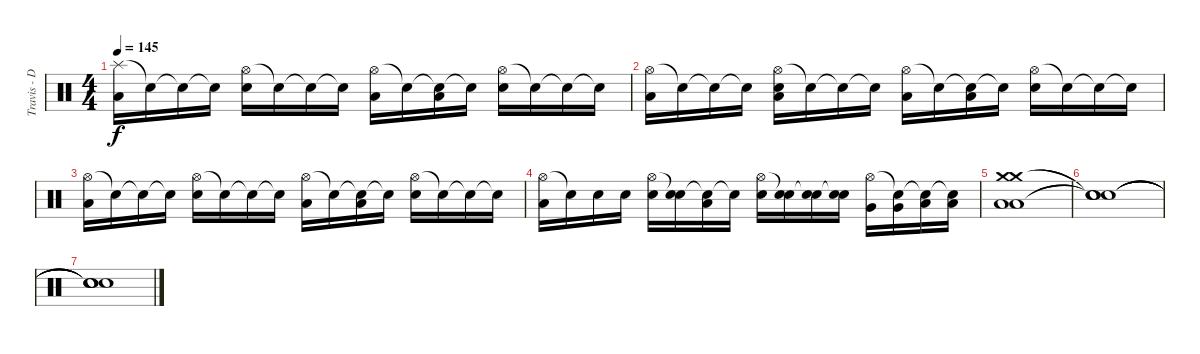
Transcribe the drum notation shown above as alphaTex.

\track ("Travis - Drums" "Travis - D") {instrument percussion}
\staff {score}
\articulation defaults
\ts (4 4)
\tempo 145
\clef neutral
\ks c
("Splash (hit)" "Low Floor Tom (hit)").16{dy f} "Snare (hit)"{t}.16 "Snare (hit)"{t}.16 "Snare (hit)"{t}.16 ("Hi-Hat (open)" "Electric Snare (hit)").16 "Snare (hit)"{t}.16 "Snare (hit)"{t}.16 "Snare (hit)"{t}.16 ("Hi-Hat (open)" "Low Floor Tom (hit)").16 "Snare (hit)"{t}.16 ("Snare (hit)"{t} "Low Floor Tom (hit)").16 "Snare (hit)"{t}.16 ("Hi-Hat (open)" "Electric Snare (hit)").16 "Snare (hit)"{t}.16 "Snare (hit)"{t}.16 "Snare (hit)"{t}.16 |
("Hi-Hat (open)" "Low Floor Tom (hit)").16 "Snare (hit)"{t}.16 "Snare (hit)"{t}.16 "Snare (hit)"{t}.16 ("Hi-Hat (open)" "Electric Snare (hit)" "Low Floor Tom (hit)").16 "Snare (hit)"{t}.16 "Snare (hit)"{t}.16 "Snare (hit)"{t}.16 ("Hi-Hat (open)" "Low Floor Tom (hit)").16 "Snare (hit)"{t}.16 ("Snare (hit)"{t} "Low Floor Tom (hit)").16 "Snare (hit)"{t}.16 ("Hi-Hat (open)" "Electric Snare (hit)").16 "Snare (hit)"{t}.16 "Snare (hit)"{t}.16 "Snare (hit)"{t}.16 |
("Hi-Hat (open)" "Low Floor Tom (hit)").16 "Snare (hit)"{t}.16 "Snare (hit)"{t}.16 "Snare (hit)"{t}.16 ("Hi-Hat (open)" "Electric Snare (hit)").16 "Snare (hit)"{t}.16 "Snare (hit)"{t}.16 "Snare (hit)"{t}.16 ("Hi-Hat (open)" "Low Floor Tom (hit)").16 "Snare (hit)"{t}.16 ("Snare (hit)"{t} "Low Floor Tom (hit)").16 "Snare (hit)"{t}.16 ("Hi-Hat (open)" "Electric Snare (hit)").16 "Snare (hit)"{t}.16 "Snare (hit)"{t}.16 "Snare (hit)"{t}.16 |
("Hi-Hat (open)" "Low Floor Tom (hit)").16 "Snare (hit)"{t}.16 "Electric Snare (hit)".16 "Electric Snare (hit)".16 ("Hi-Hat (open)" "Electric Snare (hit)").16 ("Snare (hit)"{t} "Electric Snare (hit)").16 ("Snare (hit)"{t} "Low Floor Tom (hit)").16 "Snare (hit)"{t}.16 ("Hi-Hat (open)" "Electric Snare (hit)").16 ("Snare (hit)"{t} "Electric Snare (hit)").16 ("Snare (hit)"{t} "Electric Snare (hit)").16 ("Snare (hit)"{t} "Electric Snare (hit)").16 ("Hi-Hat (open)" "Very Low Tom (hit)").16 ("Snare (hit)"{t} "Very Low Tom (hit)").16 ("Snare (hit)"{t} "Low Floor Tom (hit)").16 ("Snare (hit)"{t} "Low Floor Tom (hit)").16 |
("Crash medium (hit)" "Crash medium (hit)" "Low Floor Tom (hit)" "Low Floor Tom (hit)").1 |
("Snare (hit)"{t} "Snare (hit)"{t} "Snare (hit)"{t} "Snare (hit)"{t}).1 |
("Snare (hit)"{t} "Snare (hit)"{t} "Snare (hit)"{t} "Snare (hit)"{t}).1
